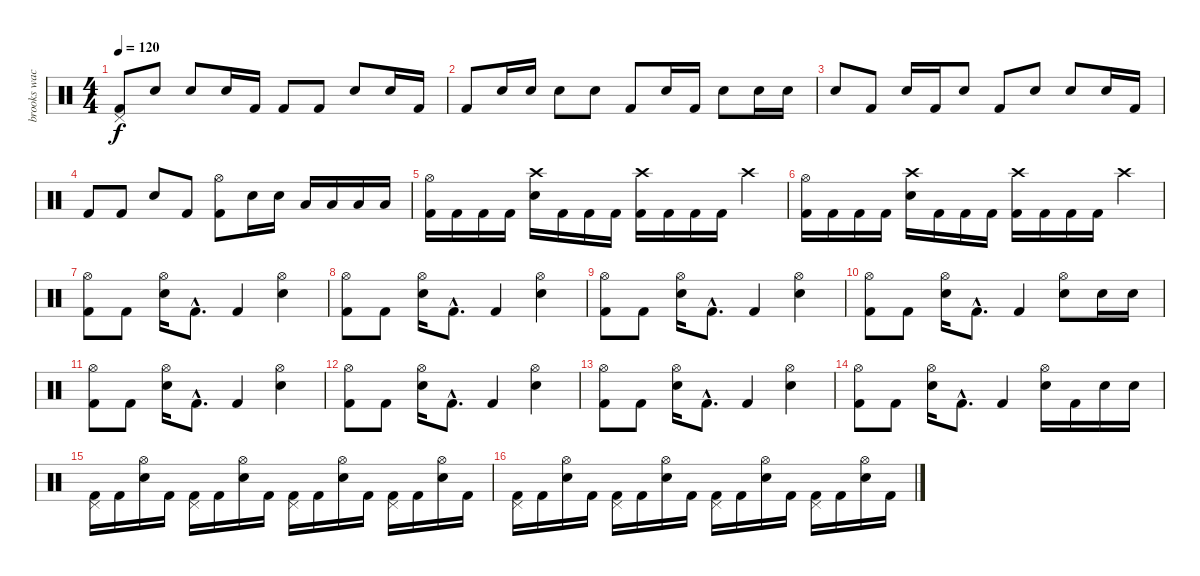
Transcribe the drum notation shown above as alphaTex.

\track ("brooks wackerman" "brooks wac") {instrument percussion}
\staff {score}
\articulation defaults
\ts (4 4)
\tempo 120
\clef neutral
\ks c
("Pedal Hi-Hat (hit)" "Kick (hit) 2").8{dy f} "Electric Snare (hit)"{x}.8 "Electric Snare (hit)".8 "Snare (hit)"{x}.16 "Kick (hit) 2".16 "Kick (hit) 2".8 "Kick (hit) 2".8 "Electric Snare (hit)".8 "Snare (hit)"{x}.16 "Kick (hit) 2".16 |
"Kick (hit) 2".8 "Snare (hit)"{x}.16 "Electric Snare (hit)".16 "Electric Snare (hit)".8 "Snare (hit)"{x}.8 "Kick (hit) 2".8 "Snare (hit)"{x}.16 "Kick (hit) 2".16 "Electric Snare (hit)".8 "Snare (hit)"{x}.16 "Electric Snare (hit)".16 |
"Electric Snare (hit)".8 "Kick (hit) 2".8 "Electric Snare (hit)".16 "Kick (hit) 2".16 "Snare (hit)"{x}.8 "Kick (hit) 2".8 "Snare (hit)"{x}.8 "Electric Snare (hit)".8 "Snare (hit)"{x}.16 "Kick (hit) 2".16 |
"Kick (hit) 2".8 "Kick (hit) 2".8 "Electric Snare (hit)".8 "Kick (hit) 2".8 ("Hi-Hat (open)" "Kick (hit) 2").8 "Electric Snare (hit)".16 "Electric Snare (hit)".16 "Low Floor Tom (hit)".16 "Low Floor Tom (hit)".16 "Low Floor Tom (hit)".16 "Low Floor Tom (hit)".16 |
("Hi-Hat (open)" "Kick (hit) 2").16 "Kick (hit) 2".16 "Kick (hit) 2".16 "Kick (hit) 2".16 ("Crash high (hit)" "Electric Snare (hit)").16 "Kick (hit) 2".16 "Kick (hit) 2".16 "Kick (hit) 2".16 ("Crash high (hit)" "Kick (hit) 2").16 "Kick (hit) 2".16 "Kick (hit) 2".16 "Kick (hit) 2".16 "Crash high (hit)".4 |
("Hi-Hat (open)" "Kick (hit) 2").16 "Kick (hit) 2".16 "Kick (hit) 2".16 "Kick (hit) 2".16 ("Crash high (hit)" "Electric Snare (hit)").16 "Kick (hit) 2".16 "Kick (hit) 2".16 "Kick (hit) 2".16 ("Crash high (hit)" "Kick (hit) 2").16 "Kick (hit) 2".16 "Kick (hit) 2".16 "Kick (hit) 2".16 "Crash high (hit)".4 |
("Hi-Hat (open)" "Kick (hit) 2").8 "Kick (hit) 2".8 ("Hi-Hat (open)" "Electric Snare (hit)").16 "Kick (hit) 2"{hac}.8{d} "Kick (hit) 2".4 ("Hi-Hat (open)" "Electric Snare (hit)").4 |
("Hi-Hat (open)" "Kick (hit) 2").8 "Kick (hit) 2".8 ("Hi-Hat (open)" "Electric Snare (hit)").16 "Kick (hit) 2"{hac}.8{d} "Kick (hit) 2".4 ("Hi-Hat (open)" "Electric Snare (hit)").4 |
("Hi-Hat (open)" "Kick (hit) 2").8 "Kick (hit) 2".8 ("Hi-Hat (open)" "Electric Snare (hit)").16 "Kick (hit) 2"{hac}.8{d} "Kick (hit) 2".4 ("Hi-Hat (open)" "Electric Snare (hit)").4 |
("Hi-Hat (open)" "Kick (hit) 2").8 "Kick (hit) 2".8 ("Hi-Hat (open)" "Electric Snare (hit)").16 "Kick (hit) 2"{hac}.8{d} "Kick (hit) 2".4 ("Hi-Hat (open)" "Electric Snare (hit)").8 "Electric Snare (hit)".16 "Electric Snare (hit)".16 |
("Hi-Hat (open)" "Kick (hit) 2").8 "Kick (hit) 2".8 ("Hi-Hat (open)" "Electric Snare (hit)").16 "Kick (hit) 2"{hac}.8{d} "Kick (hit) 2".4 ("Hi-Hat (open)" "Electric Snare (hit)").4 |
("Hi-Hat (open)" "Kick (hit) 2").8 "Kick (hit) 2".8 ("Hi-Hat (open)" "Electric Snare (hit)").16 "Kick (hit) 2"{hac}.8{d} "Kick (hit) 2".4 ("Hi-Hat (open)" "Electric Snare (hit)").4 |
("Hi-Hat (open)" "Kick (hit) 2").8 "Kick (hit) 2".8 ("Hi-Hat (open)" "Electric Snare (hit)").16 "Kick (hit) 2"{hac}.8{d} "Kick (hit) 2".4 ("Hi-Hat (open)" "Electric Snare (hit)").4 |
("Hi-Hat (open)" "Kick (hit) 2").8 "Kick (hit) 2".8 ("Hi-Hat (open)" "Electric Snare (hit)").16 "Kick (hit) 2"{hac}.8{d} "Kick (hit) 2".4 ("Hi-Hat (open)" "Electric Snare (hit)").16 "Kick (hit) 2".16 "Electric Snare (hit)".16 "Electric Snare (hit)".16 |
("Pedal Hi-Hat (hit)" "Kick (hit) 2").16 "Kick (hit) 2".16 ("Hi-Hat (open)" "Electric Snare (hit)").16 "Kick (hit) 2".16 ("Pedal Hi-Hat (hit)" "Kick (hit) 2").16 "Kick (hit) 2".16 ("Hi-Hat (open)" "Electric Snare (hit)").16 "Kick (hit) 2".16 ("Pedal Hi-Hat (hit)" "Kick (hit) 2").16 "Kick (hit) 2".16 ("Hi-Hat (open)" "Electric Snare (hit)").16 "Kick (hit) 2".16 ("Pedal Hi-Hat (hit)" "Kick (hit) 2").16 "Kick (hit) 2".16 ("Hi-Hat (open)" "Electric Snare (hit)").16 "Kick (hit) 2".16 |
("Pedal Hi-Hat (hit)" "Kick (hit) 2").16 "Kick (hit) 2".16 ("Hi-Hat (open)" "Electric Snare (hit)").16 "Kick (hit) 2".16 ("Pedal Hi-Hat (hit)" "Kick (hit) 2").16 "Kick (hit) 2".16 ("Hi-Hat (open)" "Electric Snare (hit)").16 "Kick (hit) 2".16 ("Pedal Hi-Hat (hit)" "Kick (hit) 2").16 "Kick (hit) 2".16 ("Hi-Hat (open)" "Electric Snare (hit)").16 "Kick (hit) 2".16 ("Pedal Hi-Hat (hit)" "Kick (hit) 2").16 "Kick (hit) 2".16 ("Hi-Hat (open)" "Electric Snare (hit)").16 "Kick (hit) 2".16
